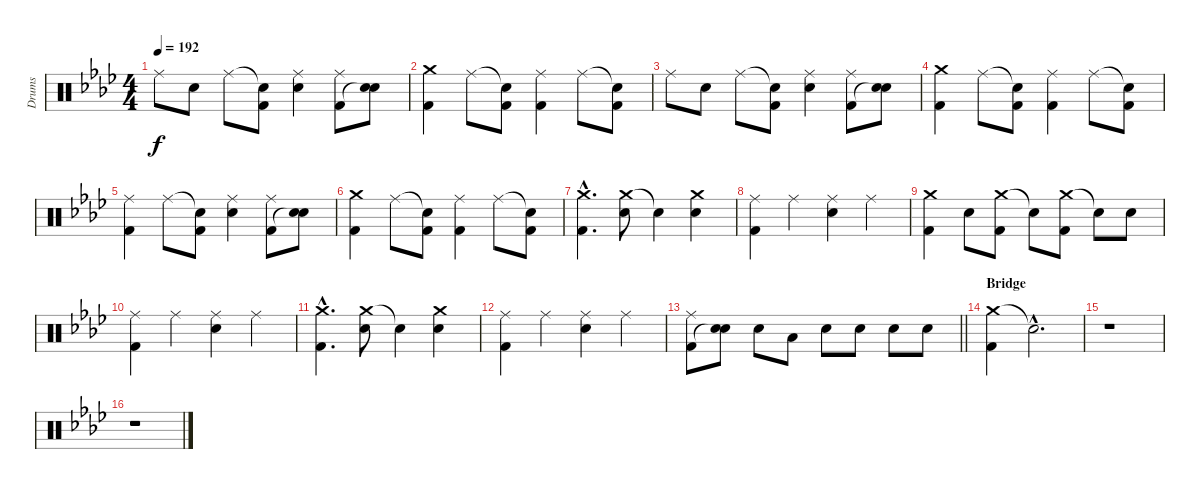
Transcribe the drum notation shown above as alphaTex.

\track ("Drums" "Drums") {instrument percussion}
\staff {score}
\articulation defaults
\ts (4 4)
\tempo 192
\clef neutral
\ks ab "Ride (middle)".8{dy f} "Electric Snare (hit)".8 "Ride (middle)".8
("Snare (hit)"{t} "Kick (hit) 2").8 ("Ride (middle)" "Electric Snare (hit)").4 ("Ride (middle)" "Kick (hit) 2").8 ("Electric Snare (hit)" "Snare (hit)"{t}).8 |
("Crash medium (hit)" "Kick (hit) 2").4 "Ride (middle)".8 ("Snare (hit)"{t} "Kick (hit) 2").8 ("Ride (middle)" "Kick (hit) 2").4 "Ride (middle)".8 ("Snare (hit)"{t} "Kick (hit) 2").8 |
"Ride (middle)".8 "Electric Snare (hit)".8 "Ride (middle)".8 ("Snare (hit)"{t} "Kick (hit) 2").8 ("Ride (middle)" "Electric Snare (hit)").4 ("Ride (middle)" "Kick (hit) 2").8 ("Electric Snare (hit)" "Snare (hit)"{t}).8 |
("Crash medium (hit)" "Kick (hit) 2").4 "Ride (middle)".8 ("Snare (hit)"{t} "Kick (hit) 2").8 ("Ride (middle)" "Kick (hit) 2").4 "Ride (middle)".8 ("Snare (hit)"{t} "Kick (hit) 2").8 |
("Ride (middle)" "Kick (hit) 2").4 "Ride (middle)".8 ("Snare (hit)"{t} "Kick (hit) 2").8 ("Ride (middle)" "Electric Snare (hit)").4 ("Ride (middle)" "Kick (hit) 2").8 ("Electric Snare (hit)" "Snare (hit)"{t}).8 |
("Crash medium (hit)" "Kick (hit) 2").4 "Ride (middle)".8 ("Snare (hit)"{t} "Kick (hit) 2").8 ("Ride (middle)" "Kick (hit) 2").4 "Ride (middle)".8 ("Snare (hit)"{t} "Kick (hit) 2").8 |
("Crash medium (hit)"{hac} "Kick (hit) 2"{hac}).4{d} ("Crash medium (hit)" "Electric Snare (hit)").8 "Snare (hit)"{t}.4 ("Crash medium (hit)" "Electric Snare (hit)").4 |
("Ride (middle)" "Kick (hit) 2").4 "Ride (middle)".4 ("Ride (middle)" "Electric Snare (hit)").4 "Ride (middle)".4 |
("Crash medium (hit)" "Kick (hit) 2").4 "Electric Snare (hit)".8 ("Crash medium (hit)" "Kick (hit) 2").8 "Snare (hit)"{t}.8 ("Crash medium (hit)" "Kick (hit) 2").8 "Snare (hit)"{t}.8 "Electric Snare (hit)".8 |
("Ride (middle)" "Kick (hit) 2").4 "Ride (middle)".4 ("Ride (middle)" "Electric Snare (hit)").4 "Ride (middle)".4 |
("Crash medium (hit)"{hac} "Kick (hit) 2"{hac}).4{d} ("Crash medium (hit)" "Electric Snare (hit)").8 "Snare (hit)"{t}.4 ("Crash medium (hit)" "Electric Snare (hit)").4 |
("Ride (middle)" "Kick (hit) 2").4 "Ride (middle)".4 ("Ride (middle)" "Electric Snare (hit)").4 "Ride (middle)".4 |
\barLineRight lightlight
("Ride (middle)" "Kick (hit) 2").8 ("Electric Snare (hit)" "Snare (hit)"{t}).8 "Electric Snare (hit)".8 "Low Floor Tom (hit)".8 "Electric Snare (hit)".8 "Electric Snare (hit)".8 "Electric Snare (hit)".8 "Electric Snare (hit)".8 |
\section ("" "Bridge")
("Crash medium (hit)" "Kick (hit) 2").4 "Snare (hit)"{hac t}.2{d} |
r.1 |
r.1
